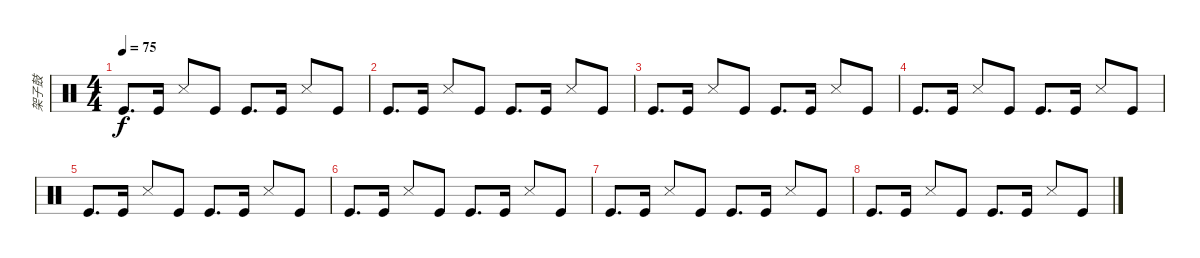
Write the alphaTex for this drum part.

\track ("架子鼓" "架子鼓") {instrument percussion}
\staff {score}
\articulation defaults
\ts (4 4)
\tempo 75
\clef neutral
\ks c "Kick (hit)".8{d dy f} "Kick (hit)".16 "Snare (side stick) 3".8 "Kick (hit)".8 "Kick (hit)".8{d} "Kick (hit)".16 "Snare (side stick) 3".8 "Kick (hit)".8
|
"Kick (hit)".8{d} "Kick (hit)".16 "Snare (side stick) 3".8 "Kick (hit)".8 "Kick (hit)".8{d} "Kick (hit)".16 "Snare (side stick) 3".8 "Kick (hit)".8 |
"Kick (hit)".8{d} "Kick (hit)".16 "Snare (side stick) 3".8 "Kick (hit)".8 "Kick (hit)".8{d} "Kick (hit)".16 "Snare (side stick) 3".8 "Kick (hit)".8 |
"Kick (hit)".8{d} "Kick (hit)".16 "Snare (side stick) 3".8 "Kick (hit)".8 "Kick (hit)".8{d} "Kick (hit)".16 "Snare (side stick) 3".8 "Kick (hit)".8 |
"Kick (hit)".8{d} "Kick (hit)".16 "Snare (side stick) 3".8 "Kick (hit)".8 "Kick (hit)".8{d} "Kick (hit)".16 "Snare (side stick) 3".8 "Kick (hit)".8 |
"Kick (hit)".8{d} "Kick (hit)".16 "Snare (side stick) 3".8 "Kick (hit)".8 "Kick (hit)".8{d} "Kick (hit)".16 "Snare (side stick) 3".8 "Kick (hit)".8 |
"Kick (hit)".8{d} "Kick (hit)".16 "Snare (side stick) 3".8 "Kick (hit)".8 "Kick (hit)".8{d} "Kick (hit)".16 "Snare (side stick) 3".8 "Kick (hit)".8 |
"Kick (hit)".8{d} "Kick (hit)".16 "Snare (side stick) 3".8 "Kick (hit)".8 "Kick (hit)".8{d} "Kick (hit)".16 "Snare (side stick) 3".8 "Kick (hit)".8
